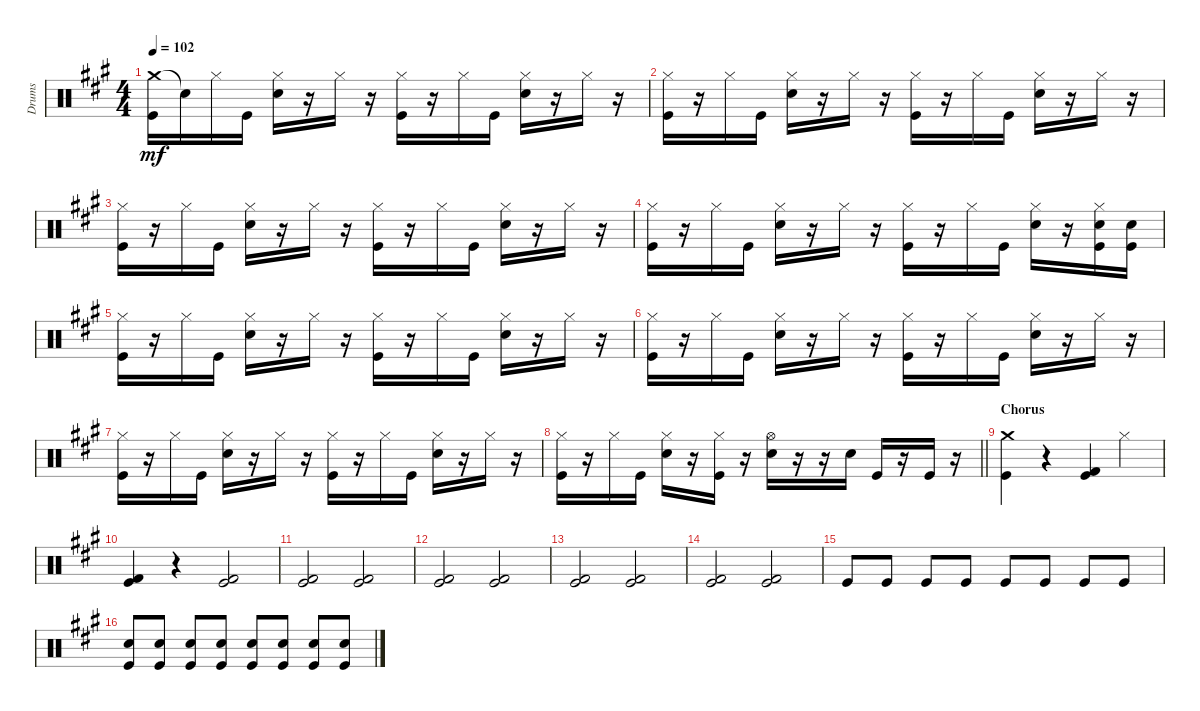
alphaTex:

\track ("Drums" "Drums") {instrument percussion}
\staff {score}
\articulation defaults
\ts (4 4)
\tempo 102
\clef neutral
\ks f#minor
("Crash medium (hit)" "Kick (hit)").16{dy mf} "Snare (hit)"{t}.16 "Hi-Hat (closed)".16 "Kick (hit)".16 ("Hi-Hat (closed)" "Snare (hit) 2").16 r.16 "Hi-Hat (closed)".16 r.16 ("Hi-Hat (closed)" "Kick (hit)").16 r.16 "Hi-Hat (closed)".16 "Kick (hit)".16 ("Hi-Hat (closed)" "Snare (hit) 2").16 r.16 "Hi-Hat (closed)".16 r.16 |
("Hi-Hat (closed)" "Kick (hit)").16 r.16 "Hi-Hat (closed)".16 "Kick (hit)".16 ("Hi-Hat (closed)" "Snare (hit) 2").16 r.16 "Hi-Hat (closed)".16 r.16 ("Hi-Hat (closed)" "Kick (hit)").16 r.16 "Hi-Hat (closed)".16 "Kick (hit)".16 ("Hi-Hat (closed)" "Snare (hit) 2").16 r.16 "Hi-Hat (closed)".16 r.16 |
("Hi-Hat (closed)" "Kick (hit)").16 r.16 "Hi-Hat (closed)".16 "Kick (hit)".16 ("Hi-Hat (closed)" "Snare (hit) 2").16 r.16 "Hi-Hat (closed)".16 r.16 ("Hi-Hat (closed)" "Kick (hit)").16 r.16 "Hi-Hat (closed)".16 "Kick (hit)".16 ("Hi-Hat (closed)" "Snare (hit) 2").16 r.16 "Hi-Hat (closed)".16 r.16 |
("Hi-Hat (closed)" "Kick (hit)").16 r.16 "Hi-Hat (closed)".16 "Kick (hit)".16 ("Hi-Hat (closed)" "Snare (hit) 2").16 r.16 "Hi-Hat (closed)".16 r.16 ("Hi-Hat (closed)" "Kick (hit)").16 r.16 "Hi-Hat (closed)".16 "Kick (hit)".16 ("Hi-Hat (closed)" "Snare (hit) 2").16 r.16 ("Hi-Hat (closed)" "Snare (hit) 2" "Kick (hit)").16 ("Snare (hit) 2" "Kick (hit)").16 |
("Hi-Hat (closed)" "Kick (hit)").16 r.16 "Hi-Hat (closed)".16 "Kick (hit)".16 ("Hi-Hat (closed)" "Snare (hit) 2").16 r.16 "Hi-Hat (closed)".16 r.16 ("Hi-Hat (closed)" "Kick (hit)").16 r.16 "Hi-Hat (closed)".16 "Kick (hit)".16 ("Hi-Hat (closed)" "Snare (hit) 2").16 r.16 "Hi-Hat (closed)".16 r.16 |
("Hi-Hat (closed)" "Kick (hit)").16 r.16 "Hi-Hat (closed)".16 "Kick (hit)".16 ("Hi-Hat (closed)" "Snare (hit) 2").16 r.16 "Hi-Hat (closed)".16 r.16 ("Hi-Hat (closed)" "Kick (hit)").16 r.16 "Hi-Hat (closed)".16 "Kick (hit)".16 ("Hi-Hat (closed)" "Snare (hit) 2").16 r.16 "Hi-Hat (closed)".16 r.16 |
("Hi-Hat (closed)" "Kick (hit)").16 r.16 "Hi-Hat (closed)".16 "Kick (hit)".16 ("Hi-Hat (closed)" "Snare (hit) 2").16 r.16 "Hi-Hat (closed)".16 r.16 ("Hi-Hat (closed)" "Kick (hit)").16 r.16 "Hi-Hat (closed)".16 "Kick (hit)".16 ("Hi-Hat (closed)" "Snare (hit) 2").16 r.16 "Hi-Hat (closed)".16 r.16 |
\barLineRight lightlight
("Hi-Hat (closed)" "Kick (hit)").16 r.16 "Hi-Hat (closed)".16 "Kick (hit)".16 ("Hi-Hat (closed)" "Snare (hit) 2").16 r.16 ("Hi-Hat (closed)" "Kick (hit)").16 r.16 ("Hi-Hat (open)" "Snare (hit) 2").16 r.16 r.16 "Snare (hit) 2".16 "Kick (hit)".16 r.16 "Kick (hit)".16 r.16 |
\section ("" "Chorus")
("Crash medium (hit)" "Kick (hit)").4 r.4 ("Kick (hit) 2" "Kick (hit)").4 "Hi-Hat (closed)".4 |
("Kick (hit) 2" "Kick (hit)").4 r.4 ("Kick (hit) 2" "Kick (hit)").2 |
("Kick (hit) 2" "Kick (hit)").2 ("Kick (hit) 2" "Kick (hit)").2 |
("Kick (hit) 2" "Kick (hit)").2 ("Kick (hit) 2" "Kick (hit)").2 |
("Kick (hit) 2" "Kick (hit)").2 ("Kick (hit) 2" "Kick (hit)").2 |
("Kick (hit) 2" "Kick (hit)").2 ("Kick (hit) 2" "Kick (hit)").2 |
"Kick (hit)".8 "Kick (hit)".8 "Kick (hit)".8 "Kick (hit)".8 "Kick (hit)".8 "Kick (hit)".8 "Kick (hit)".8 "Kick (hit)".8 |
("Snare (hit) 2" "Kick (hit)").8 ("Snare (hit) 2" "Kick (hit)").8 ("Snare (hit) 2" "Kick (hit)").8 ("Snare (hit) 2" "Kick (hit)").8 ("Snare (hit) 2" "Kick (hit)").8 ("Snare (hit) 2" "Kick (hit)").8 ("Snare (hit) 2" "Kick (hit)").8 ("Snare (hit) 2" "Kick (hit)").8
